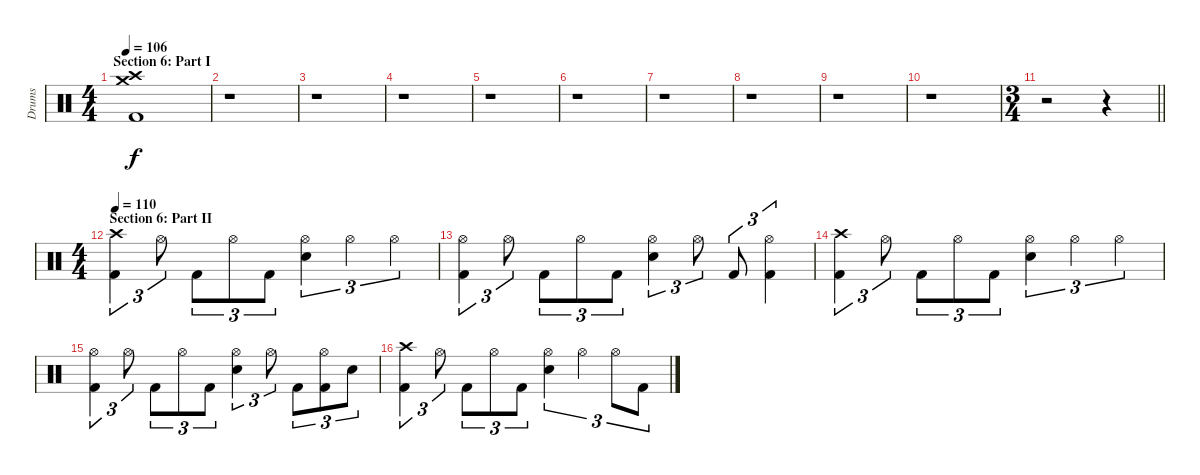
\track ("Drums" "Drums") {instrument percussion}
\staff {score}
\articulation defaults
\ts (4 4)
\section ("" "Section 6: Part I")
\tempo 106
\clef neutral
\ks c
("Crash high (hit)" "Crash medium (hit)" "Kick (hit) 2").1{dy f} |
r.1 |
r.1 |
r.1 |
r.1 |
r.1 |
r.1 |
r.1 |
r.1 |
r.1 |
\ts (3 4)
\barLineRight lightlight
r.2 r.4 |
\ts (4 4)
\section ("" "Section 6: Part II")
\tempo 110
("Crash high (hit)" "Kick (hit) 2").4{tu (3 2)} "Hi-Hat (open)".8{tu (3 2)} "Kick (hit) 2".8{tu (3 2)} "Hi-Hat (open)".8{tu (3 2)} "Kick (hit) 2".8{tu (3 2)} ("Hi-Hat (open)" "Electric Snare (hit)").4{tu (3 2)} "Hi-Hat (open)".4{tu (3 2)} "Hi-Hat (open)".4{tu (3 2)} |
("Hi-Hat (open)" "Kick (hit) 2").4{tu (3 2)} "Hi-Hat (open)".8{tu (3 2)} "Kick (hit) 2".8{tu (3 2)} "Hi-Hat (open)".8{tu (3 2)} "Kick (hit) 2".8{tu (3 2)} ("Hi-Hat (open)" "Electric Snare (hit)").4{tu (3 2)} "Hi-Hat (open)".8{tu (3 2)} "Kick (hit) 2".8{tu (3 2)} ("Hi-Hat (open)" "Kick (hit) 2").4{tu (3 2)} |
("Crash high (hit)" "Kick (hit) 2").4{tu (3 2)} "Hi-Hat (open)".8{tu (3 2)} "Kick (hit) 2".8{tu (3 2)} "Hi-Hat (open)".8{tu (3 2)} "Kick (hit) 2".8{tu (3 2)} ("Hi-Hat (open)" "Electric Snare (hit)").4{tu (3 2)} "Hi-Hat (open)".4{tu (3 2)} "Hi-Hat (open)".4{tu (3 2)} |
("Hi-Hat (open)" "Kick (hit) 2").4{tu (3 2)} "Hi-Hat (open)".8{tu (3 2)} "Kick (hit) 2".8{tu (3 2)} "Hi-Hat (open)".8{tu (3 2)} "Kick (hit) 2".8{tu (3 2)} ("Hi-Hat (open)" "Electric Snare (hit)").4{tu (3 2)} "Hi-Hat (open)".8{tu (3 2)} "Kick (hit) 2".8{tu (3 2)} ("Hi-Hat (open)" "Kick (hit) 2").8{tu (3 2)} "Electric Snare (hit)".8{tu (3 2)} |
("Crash high (hit)" "Kick (hit) 2").4{tu (3 2)} "Hi-Hat (open)".8{tu (3 2)} "Kick (hit) 2".8{tu (3 2)} "Hi-Hat (open)".8{tu (3 2)} "Kick (hit) 2".8{tu (3 2)} ("Hi-Hat (open)" "Electric Snare (hit)").4{tu (3 2)} "Hi-Hat (open)".4{tu (3 2)} "Hi-Hat (open)".8{tu (3 2)} "Kick (hit) 2".8{tu (3 2)}
